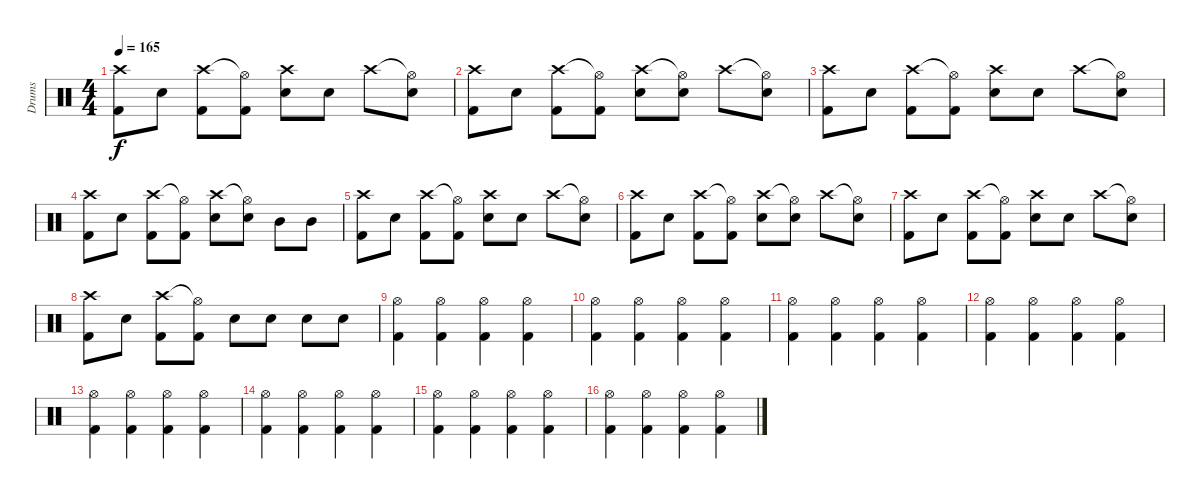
\track ("Drums" "Drums") {instrument percussion}
\staff {score}
\articulation defaults
\ts (4 4)
\tempo 165
\clef neutral
\ks c
("Crash high (hit)" "Kick (hit) 2").8{dy f} "Snare (hit) 2".8 ("Crash high (hit)" "Kick (hit) 2").8 ("Hi-Hat (open)"{t} "Kick (hit) 2").8 ("Crash high (hit)" "Snare (hit) 2").8 "Snare (hit) 2".8 "Crash high (hit)".8 ("Hi-Hat (open)"{t} "Snare (hit) 2").8 |
("Crash high (hit)" "Kick (hit) 2").8 "Snare (hit) 2".8 ("Crash high (hit)" "Kick (hit) 2").8 ("Hi-Hat (open)"{t} "Kick (hit) 2").8 ("Crash high (hit)" "Snare (hit) 2").8 ("Hi-Hat (open)"{t} "Snare (hit) 2").8 "Crash high (hit)".8 ("Hi-Hat (open)"{t} "Snare (hit) 2").8 |
("Crash high (hit)" "Kick (hit) 2").8 "Snare (hit) 2".8 ("Crash high (hit)" "Kick (hit) 2").8 ("Hi-Hat (open)"{t} "Kick (hit) 2").8 ("Crash high (hit)" "Snare (hit) 2").8 "Snare (hit) 2".8 "Crash high (hit)".8 ("Hi-Hat (open)"{t} "Snare (hit) 2").8 |
("Crash high (hit)" "Kick (hit) 2").8 "Snare (hit) 2".8 ("Crash high (hit)" "Kick (hit) 2").8 ("Hi-Hat (open)"{t} "Kick (hit) 2").8 ("Crash high (hit)" "Snare (hit) 2").8 ("Hi-Hat (open)"{t} "Snare (hit) 2").8 "Mid Tom (hit)".8 "Mid Tom (hit)".8 |
("Crash high (hit)" "Kick (hit) 2").8 "Snare (hit) 2".8 ("Crash high (hit)" "Kick (hit) 2").8 ("Hi-Hat (open)"{t} "Kick (hit) 2").8 ("Crash high (hit)" "Snare (hit) 2").8 "Snare (hit) 2".8 "Crash high (hit)".8 ("Hi-Hat (open)"{t} "Snare (hit) 2").8 |
("Crash high (hit)" "Kick (hit) 2").8 "Snare (hit) 2".8 ("Crash high (hit)" "Kick (hit) 2").8 ("Hi-Hat (open)"{t} "Kick (hit) 2").8 ("Crash high (hit)" "Snare (hit) 2").8 ("Hi-Hat (open)"{t} "Snare (hit) 2").8 "Crash high (hit)".8 ("Hi-Hat (open)"{t} "Snare (hit) 2").8 |
("Crash high (hit)" "Kick (hit) 2").8 "Snare (hit) 2".8 ("Crash high (hit)" "Kick (hit) 2").8 ("Hi-Hat (open)"{t} "Kick (hit) 2").8 ("Crash high (hit)" "Snare (hit) 2").8 "Snare (hit) 2".8 "Crash high (hit)".8 ("Hi-Hat (open)"{t} "Snare (hit) 2").8 |
("Crash high (hit)" "Kick (hit) 2").8 "Snare (hit) 2".8 ("Crash high (hit)" "Kick (hit) 2").8 ("Hi-Hat (open)"{t} "Kick (hit) 2").8 "Snare (hit) 2".8 "Snare (hit) 2".8 "Snare (hit) 2".8 "Snare (hit) 2".8 |
("Hi-Hat (open)" "Kick (hit) 2").4 ("Hi-Hat (open)" "Kick (hit) 2").4 ("Hi-Hat (open)" "Kick (hit) 2").4 ("Hi-Hat (open)" "Kick (hit) 2").4 |
("Hi-Hat (open)" "Kick (hit) 2").4 ("Hi-Hat (open)" "Kick (hit) 2").4 ("Hi-Hat (open)" "Kick (hit) 2").4 ("Hi-Hat (open)" "Kick (hit) 2").4 |
("Hi-Hat (open)" "Kick (hit) 2").4 ("Hi-Hat (open)" "Kick (hit) 2").4 ("Hi-Hat (open)" "Kick (hit) 2").4 ("Hi-Hat (open)" "Kick (hit) 2").4 |
("Hi-Hat (open)" "Kick (hit) 2").4 ("Hi-Hat (open)" "Kick (hit) 2").4 ("Hi-Hat (open)" "Kick (hit) 2").4 ("Hi-Hat (open)" "Kick (hit) 2").4 |
("Hi-Hat (open)" "Kick (hit) 2").4 ("Hi-Hat (open)" "Kick (hit) 2").4 ("Hi-Hat (open)" "Kick (hit) 2").4 ("Hi-Hat (open)" "Kick (hit) 2").4 |
("Hi-Hat (open)" "Kick (hit) 2").4 ("Hi-Hat (open)" "Kick (hit) 2").4 ("Hi-Hat (open)" "Kick (hit) 2").4 ("Hi-Hat (open)" "Kick (hit) 2").4 |
("Hi-Hat (open)" "Kick (hit) 2").4 ("Hi-Hat (open)" "Kick (hit) 2").4 ("Hi-Hat (open)" "Kick (hit) 2").4 ("Hi-Hat (open)" "Kick (hit) 2").4 |
("Hi-Hat (open)" "Kick (hit) 2").4 ("Hi-Hat (open)" "Kick (hit) 2").4 ("Hi-Hat (open)" "Kick (hit) 2").4 ("Hi-Hat (open)" "Kick (hit) 2").4
